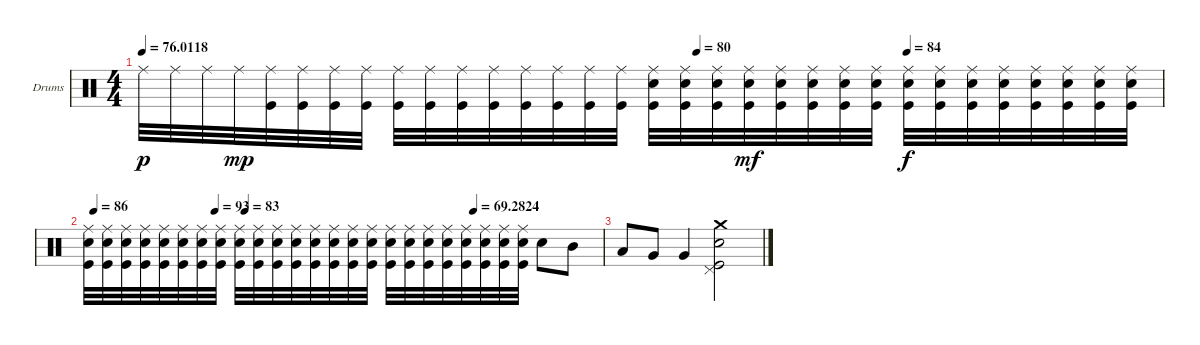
\defaultSystemsLayout 4
\bracketExtendMode groupsimilarinstruments
\firstSystemTrackNameOrientation horizontal
\otherSystemsTrackNameOrientation horizontal
\track ("Е. Кулаков" "Drums") {instrument percussion}
\staff {score}
\articulation defaults
\ts (4 4)
\tempo
76.0118
\tempo (80 0.54375)
\tempo (84 0.75)
\accidentals auto
\clef neutral
\ottava regular
\simile none
\ks c "Ride (middle)".32{dy p} "Ride (middle)".32 "Ride (middle)".32 "Ride (middle)".32{dy mp}
("Ride (middle)" "Kick (hit)").32 ("Ride (middle)" "Kick (hit)").32 ("Ride (middle)" "Kick (hit)").32 ("Ride (middle)" "Kick (hit)").32 ("Ride (middle)" "Kick (hit)").32 ("Ride (middle)" "Kick (hit)").32 ("Ride (middle)" "Kick (hit)").32 ("Ride (middle)" "Kick (hit)").32 ("Ride (middle)" "Kick (hit)").32 ("Ride (middle)" "Kick (hit)").32 ("Ride (middle)" "Kick (hit)").32 ("Ride (middle)" "Kick (hit)").32 ("Ride (middle)" "Kick (hit)" "Snare (hit) 2").32 ("Ride (middle)" "Kick (hit)" "Snare (hit) 2").32 ("Ride (middle)" "Kick (hit)" "Snare (hit) 2").32 ("Ride (middle)" "Kick (hit)" "Snare (hit) 2").32{dy mf} ("Ride (middle)" "Kick (hit)" "Snare (hit) 2").32 ("Ride (middle)" "Kick (hit)" "Snare (hit) 2").32 ("Ride (middle)" "Kick (hit)" "Snare (hit) 2").32 ("Ride (middle)" "Kick (hit)" "Snare (hit) 2").32 ("Ride (middle)" "Kick (hit)" "Snare (hit) 2").32{dy f} ("Ride (middle)" "Kick (hit)" "Snare (hit) 2").32 ("Ride (middle)" "Kick (hit)" "Snare (hit) 2").32 ("Ride (middle)" "Kick (hit)" "Snare (hit) 2").32 ("Ride (middle)" "Kick (hit)" "Snare (hit) 2").32 ("Ride (middle)" "Kick (hit)" "Snare (hit) 2").32 ("Ride (middle)" "Kick (hit)" "Snare (hit) 2").32 ("Ride (middle)" "Kick (hit)" "Snare (hit) 2").32 |
\tempo (86 0.0125)
\tempo (93 0.247967)
\tempo (83 0.30625)
\tempo (69.2824 0.75)
("Ride (middle)" "Kick (hit)" "Snare (hit) 2").32 ("Ride (middle)" "Kick (hit)" "Snare (hit) 2").32 ("Ride (middle)" "Kick (hit)" "Snare (hit) 2").32 ("Ride (middle)" "Kick (hit)" "Snare (hit) 2").32 ("Ride (middle)" "Kick (hit)" "Snare (hit) 2").32 ("Ride (middle)" "Kick (hit)" "Snare (hit) 2").32 ("Ride (middle)" "Kick (hit)" "Snare (hit) 2").32 ("Ride (middle)" "Kick (hit)" "Snare (hit) 2").32 ("Ride (middle)" "Kick (hit)" "Snare (hit) 2").32 ("Ride (middle)" "Kick (hit)" "Snare (hit) 2").32 ("Ride (middle)" "Kick (hit)" "Snare (hit) 2").32 ("Ride (middle)" "Kick (hit)" "Snare (hit) 2").32 ("Ride (middle)" "Kick (hit)" "Snare (hit) 2").32 ("Ride (middle)" "Kick (hit)" "Snare (hit) 2").32 ("Ride (middle)" "Kick (hit)" "Snare (hit) 2").32 ("Ride (middle)" "Kick (hit)" "Snare (hit) 2").32 ("Ride (middle)" "Kick (hit)" "Snare (hit) 2").32 ("Ride (middle)" "Kick (hit)" "Snare (hit) 2").32 ("Ride (middle)" "Kick (hit)" "Snare (hit) 2").32 ("Ride (middle)" "Kick (hit)" "Snare (hit) 2").32 ("Ride (middle)" "Kick (hit)" "Snare (hit) 2").32 ("Ride (middle)" "Kick (hit)" "Snare (hit) 2").32 ("Ride (middle)" "Kick (hit)" "Snare (hit) 2").32 ("Ride (middle)" "Kick (hit)" "Snare (hit) 2").32 "Snare (hit) 2".8 "Mid Tom (hit)".8 |
"Low Tom (hit)".8 "Very Low Tom (hit)".8 "Very Low Tom (hit)".4 ("Kick (hit)" "Snare (hit) 2" "Pedal Hi-Hat (hit)" "Crash medium (hit)").2
